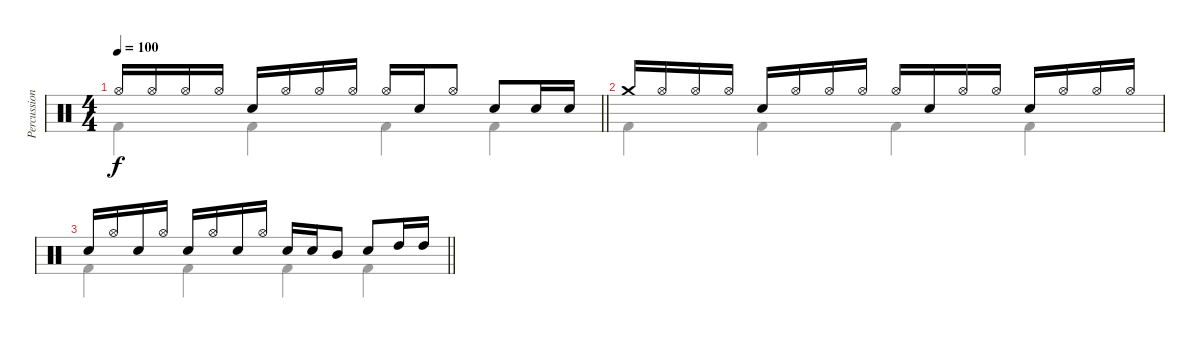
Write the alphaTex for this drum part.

\track ("Percussion" "Percussion") {instrument percussion}
\staff {score}
\articulation defaults
\voice
\ts (4 4)
\tempo 100
\clef neutral
\barLineRight lightlight
\ks c "Hi-Hat (open)".16{dy f} "Hi-Hat (open)".16 "Hi-Hat (open)".16 "Hi-Hat (open)".16 "Snare (hit) 2".16 "Hi-Hat (open)".16 "Hi-Hat (open)".16 "Hi-Hat (open)".16 "Hi-Hat (open)".16 "Snare (hit) 2".16 "Hi-Hat (open)".8 "Snare (hit) 2".8 "Snare (hit) 2".16 "Snare (hit) 2".16
|
"Crash medium (hit)".16 "Hi-Hat (open)".16 "Hi-Hat (open)".16 "Hi-Hat (open)".16 "Snare (hit) 2".16 "Hi-Hat (open)".16 "Hi-Hat (open)".16 "Hi-Hat (open)".16 "Hi-Hat (open)".16 "Snare (hit) 2".16 "Hi-Hat (open)".16 "Hi-Hat (open)".16 "Snare (hit) 2".16 "Hi-Hat (open)".16 "Hi-Hat (open)".16 "Hi-Hat (open)".16 |
\barLineRight lightlight "Snare (hit) 2".16 "Hi-Hat (open)".16 "Snare (hit) 2".16 "Hi-Hat (open)".16 "Snare (hit) 2".16 "Hi-Hat (open)".16 "Snare (hit) 2".16 "Hi-Hat (open)".16 "Snare (hit) 2".16 "Snare (hit) 2".16 "Mid Tom (hit)".8 "Snare (hit) 2".8 "High Tom (hit)".16 "High Tom (hit)".16
\voice
\clef neutral
\ottava regular
\simile none
\barLineRight lightlight
\ks c "Kick (hit) 2".4{dy f} "Kick (hit) 2".4 "Kick (hit) 2".4 "Kick (hit) 2".4
|
"Kick (hit) 2".4 "Kick (hit) 2".4 "Kick (hit) 2".4 "Kick (hit) 2".4 |
\barLineRight lightlight "Kick (hit) 2".4 "Kick (hit) 2".4 "Kick (hit) 2".4 "Kick (hit) 2".4
